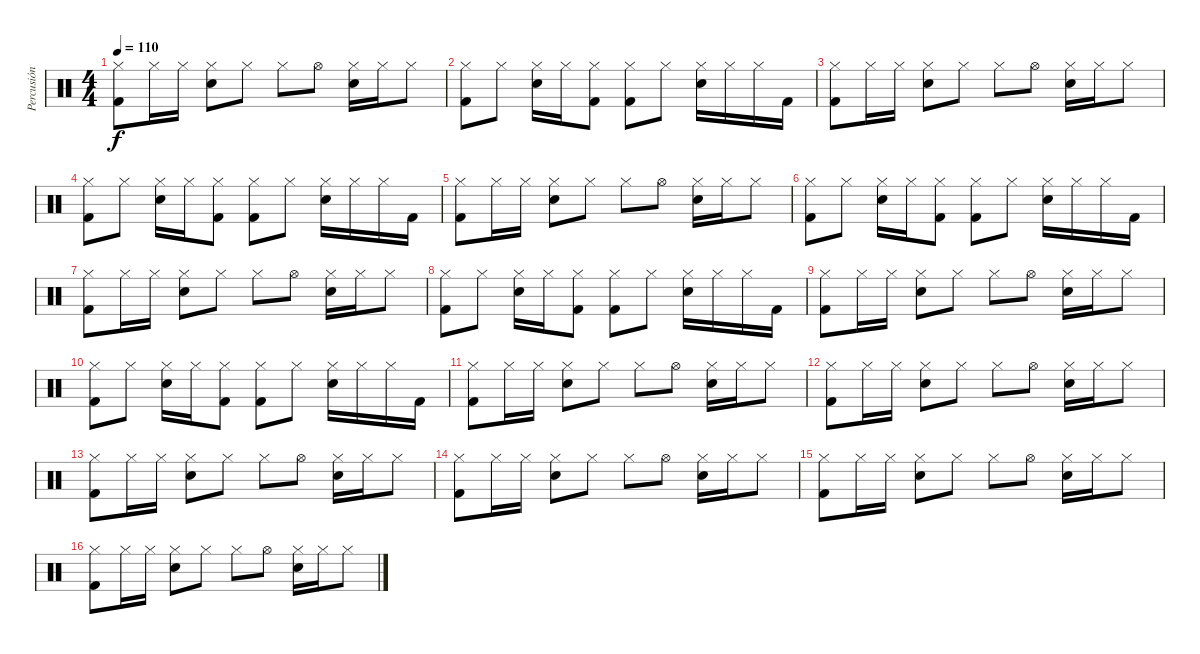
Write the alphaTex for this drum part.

\track ("Percusión" "Percusión") {instrument percussion}
\staff {score}
\articulation defaults
\ts (4 4)
\tempo 110
\clef neutral
\ks c
("Hi-Hat (closed)" "Kick (hit) 2").8{dy f} "Hi-Hat (closed)".16 "Hi-Hat (closed)".16 ("Hi-Hat (closed)" "Snare (hit) 2").8 "Hi-Hat (closed)".8 "Hi-Hat (closed)".8 "Hi-Hat (open)".8 ("Hi-Hat (closed)" "Snare (hit) 2").16 "Hi-Hat (closed)".16 "Hi-Hat (closed)".8 |
("Hi-Hat (closed)" "Kick (hit) 2").8 "Hi-Hat (closed)".8 ("Hi-Hat (closed)" "Snare (hit) 2").16 "Hi-Hat (closed)".16 ("Hi-Hat (closed)" "Kick (hit) 2").8 ("Hi-Hat (closed)" "Kick (hit) 2").8 "Hi-Hat (closed)".8 ("Hi-Hat (closed)" "Snare (hit) 2").16 "Hi-Hat (closed)".16 "Hi-Hat (closed)".16 "Kick (hit) 2".16 |
("Hi-Hat (closed)" "Kick (hit) 2").8 "Hi-Hat (closed)".16 "Hi-Hat (closed)".16 ("Hi-Hat (closed)" "Snare (hit) 2").8 "Hi-Hat (closed)".8 "Hi-Hat (closed)".8 "Hi-Hat (open)".8 ("Hi-Hat (closed)" "Snare (hit) 2").16 "Hi-Hat (closed)".16 "Hi-Hat (closed)".8 |
("Hi-Hat (closed)" "Kick (hit) 2").8 "Hi-Hat (closed)".8 ("Hi-Hat (closed)" "Snare (hit) 2").16 "Hi-Hat (closed)".16 ("Hi-Hat (closed)" "Kick (hit) 2").8 ("Hi-Hat (closed)" "Kick (hit) 2").8 "Hi-Hat (closed)".8 ("Hi-Hat (closed)" "Snare (hit) 2").16 "Hi-Hat (closed)".16 "Hi-Hat (closed)".16 "Kick (hit) 2".16 |
("Hi-Hat (closed)" "Kick (hit) 2").8 "Hi-Hat (closed)".16 "Hi-Hat (closed)".16 ("Hi-Hat (closed)" "Snare (hit) 2").8 "Hi-Hat (closed)".8 "Hi-Hat (closed)".8 "Hi-Hat (open)".8 ("Hi-Hat (closed)" "Snare (hit) 2").16 "Hi-Hat (closed)".16 "Hi-Hat (closed)".8 |
("Hi-Hat (closed)" "Kick (hit) 2").8 "Hi-Hat (closed)".8 ("Hi-Hat (closed)" "Snare (hit) 2").16 "Hi-Hat (closed)".16 ("Hi-Hat (closed)" "Kick (hit) 2").8 ("Hi-Hat (closed)" "Kick (hit) 2").8 "Hi-Hat (closed)".8 ("Hi-Hat (closed)" "Snare (hit) 2").16 "Hi-Hat (closed)".16 "Hi-Hat (closed)".16 "Kick (hit) 2".16 |
("Hi-Hat (closed)" "Kick (hit) 2").8 "Hi-Hat (closed)".16 "Hi-Hat (closed)".16 ("Hi-Hat (closed)" "Snare (hit) 2").8 "Hi-Hat (closed)".8 "Hi-Hat (closed)".8 "Hi-Hat (open)".8 ("Hi-Hat (closed)" "Snare (hit) 2").16 "Hi-Hat (closed)".16 "Hi-Hat (closed)".8 |
("Hi-Hat (closed)" "Kick (hit) 2").8 "Hi-Hat (closed)".8 ("Hi-Hat (closed)" "Snare (hit) 2").16 "Hi-Hat (closed)".16 ("Hi-Hat (closed)" "Kick (hit) 2").8 ("Hi-Hat (closed)" "Kick (hit) 2").8 "Hi-Hat (closed)".8 ("Hi-Hat (closed)" "Snare (hit) 2").16 "Hi-Hat (closed)".16 "Hi-Hat (closed)".16 "Kick (hit) 2".16 |
("Hi-Hat (closed)" "Kick (hit) 2").8 "Hi-Hat (closed)".16 "Hi-Hat (closed)".16 ("Hi-Hat (closed)" "Snare (hit) 2").8 "Hi-Hat (closed)".8 "Hi-Hat (closed)".8 "Hi-Hat (open)".8 ("Hi-Hat (closed)" "Snare (hit) 2").16 "Hi-Hat (closed)".16 "Hi-Hat (closed)".8 |
("Hi-Hat (closed)" "Kick (hit) 2").8 "Hi-Hat (closed)".8 ("Hi-Hat (closed)" "Snare (hit) 2").16 "Hi-Hat (closed)".16 ("Hi-Hat (closed)" "Kick (hit) 2").8 ("Hi-Hat (closed)" "Kick (hit) 2").8 "Hi-Hat (closed)".8 ("Hi-Hat (closed)" "Snare (hit) 2").16 "Hi-Hat (closed)".16 "Hi-Hat (closed)".16 "Kick (hit) 2".16 |
("Hi-Hat (closed)" "Kick (hit) 2").8 "Hi-Hat (closed)".16 "Hi-Hat (closed)".16 ("Hi-Hat (closed)" "Snare (hit) 2").8 "Hi-Hat (closed)".8 "Hi-Hat (closed)".8 "Hi-Hat (open)".8 ("Hi-Hat (closed)" "Snare (hit) 2").16 "Hi-Hat (closed)".16 "Hi-Hat (closed)".8 |
("Hi-Hat (closed)" "Kick (hit) 2").8 "Hi-Hat (closed)".16 "Hi-Hat (closed)".16 ("Hi-Hat (closed)" "Snare (hit) 2").8 "Hi-Hat (closed)".8 "Hi-Hat (closed)".8 "Hi-Hat (open)".8 ("Hi-Hat (closed)" "Snare (hit) 2").16 "Hi-Hat (closed)".16 "Hi-Hat (closed)".8 |
("Hi-Hat (closed)" "Kick (hit) 2").8 "Hi-Hat (closed)".16 "Hi-Hat (closed)".16 ("Hi-Hat (closed)" "Snare (hit) 2").8 "Hi-Hat (closed)".8 "Hi-Hat (closed)".8 "Hi-Hat (open)".8 ("Hi-Hat (closed)" "Snare (hit) 2").16 "Hi-Hat (closed)".16 "Hi-Hat (closed)".8 |
("Hi-Hat (closed)" "Kick (hit) 2").8 "Hi-Hat (closed)".16 "Hi-Hat (closed)".16 ("Hi-Hat (closed)" "Snare (hit) 2").8 "Hi-Hat (closed)".8 "Hi-Hat (closed)".8 "Hi-Hat (open)".8 ("Hi-Hat (closed)" "Snare (hit) 2").16 "Hi-Hat (closed)".16 "Hi-Hat (closed)".8 |
("Hi-Hat (closed)" "Kick (hit) 2").8 "Hi-Hat (closed)".16 "Hi-Hat (closed)".16 ("Hi-Hat (closed)" "Snare (hit) 2").8 "Hi-Hat (closed)".8 "Hi-Hat (closed)".8 "Hi-Hat (open)".8 ("Hi-Hat (closed)" "Snare (hit) 2").16 "Hi-Hat (closed)".16 "Hi-Hat (closed)".8 |
("Hi-Hat (closed)" "Kick (hit) 2").8 "Hi-Hat (closed)".16 "Hi-Hat (closed)".16 ("Hi-Hat (closed)" "Snare (hit) 2").8 "Hi-Hat (closed)".8 "Hi-Hat (closed)".8 "Hi-Hat (open)".8 ("Hi-Hat (closed)" "Snare (hit) 2").16 "Hi-Hat (closed)".16 "Hi-Hat (closed)".8
